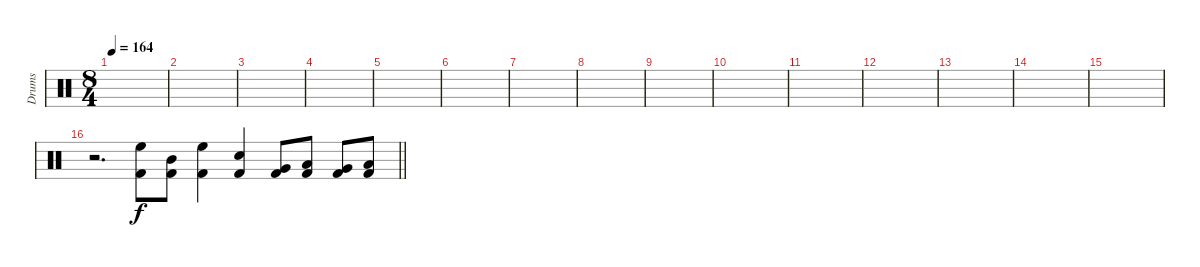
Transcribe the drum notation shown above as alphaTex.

\track ("Drums" "Drums") {instrument percussion}
\staff {score}
\articulation defaults
\ts (8 4)
\tempo 164
\clef neutral
\ks c
|
|
|
|
|
|
|
|
|
|
|
|
|
|
|
\barLineRight lightlight
r.2{d} ("High Floor Tom (hit)" "Kick (hit) 2").8 ("Mid Tom (hit)" "Kick (hit) 2").8 ("High Floor Tom (hit)" "Kick (hit) 2").4 ("Snare (hit) 2" "Kick (hit) 2").4 ("Very Low Tom (hit)" "Kick (hit) 2").8 ("Low Tom (hit)" "Kick (hit) 2").8 ("Very Low Tom (hit)" "Kick (hit) 2").8 ("Low Floor Tom (hit)" "Kick (hit) 2").8
